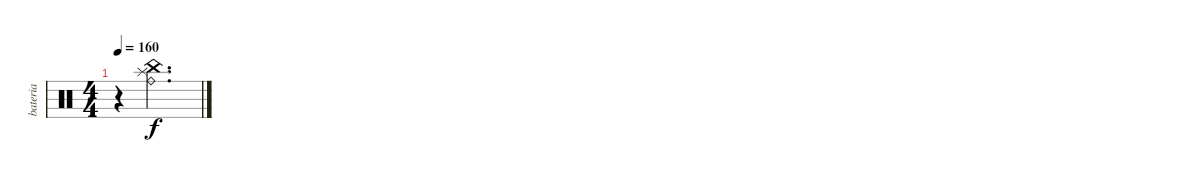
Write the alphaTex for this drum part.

\track ("bateria" "bateria") {instrument percussion}
\staff {score}
\articulation defaults
\ts (4 4)
\tempo 160
\clef neutral
\ks c
r.4{dy f} ("Ride (bell)" "China (hit)" "Splash (hit)").2{d}
